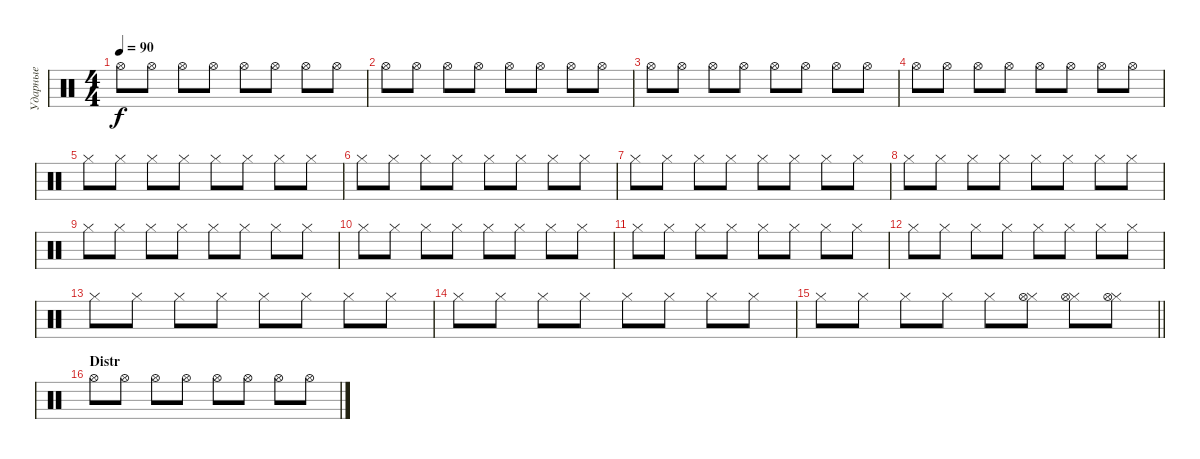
\track ("Ударные" "Ударные") {instrument percussion}
\staff {score}
\articulation defaults
\ts (4 4)
\tempo 90
\clef neutral
\ks c "Hi-Hat (open)".8{dy f} "Hi-Hat (open)".8 "Hi-Hat (open)".8 "Hi-Hat (open)".8 "Hi-Hat (open)".8 "Hi-Hat (open)".8 "Hi-Hat (open)".8 "Hi-Hat (open)".8
|
"Hi-Hat (open)".8 "Hi-Hat (open)".8 "Hi-Hat (open)".8 "Hi-Hat (open)".8 "Hi-Hat (open)".8 "Hi-Hat (open)".8 "Hi-Hat (open)".8 "Hi-Hat (open)".8 |
"Hi-Hat (open)".8 "Hi-Hat (open)".8 "Hi-Hat (open)".8 "Hi-Hat (open)".8 "Hi-Hat (open)".8 "Hi-Hat (open)".8 "Hi-Hat (open)".8 "Hi-Hat (open)".8 |
"Hi-Hat (open)".8 "Hi-Hat (open)".8 "Hi-Hat (open)".8 "Hi-Hat (open)".8 "Hi-Hat (open)".8 "Hi-Hat (open)".8 "Hi-Hat (open)".8 "Hi-Hat (open)".8 |
"Hi-Hat (closed)".8 "Hi-Hat (closed)".8 "Hi-Hat (closed)".8 "Hi-Hat (closed)".8 "Hi-Hat (closed)".8 "Hi-Hat (closed)".8 "Hi-Hat (closed)".8 "Hi-Hat (closed)".8 |
"Hi-Hat (closed)".8 "Hi-Hat (closed)".8 "Hi-Hat (closed)".8 "Hi-Hat (closed)".8 "Hi-Hat (closed)".8 "Hi-Hat (closed)".8 "Hi-Hat (closed)".8 "Hi-Hat (closed)".8 |
"Hi-Hat (closed)".8 "Hi-Hat (closed)".8 "Hi-Hat (closed)".8 "Hi-Hat (closed)".8 "Hi-Hat (closed)".8 "Hi-Hat (closed)".8 "Hi-Hat (closed)".8 "Hi-Hat (closed)".8 |
"Hi-Hat (closed)".8 "Hi-Hat (closed)".8 "Hi-Hat (closed)".8 "Hi-Hat (closed)".8 "Hi-Hat (closed)".8 "Hi-Hat (closed)".8 "Hi-Hat (closed)".8 "Hi-Hat (closed)".8 |
"Hi-Hat (closed)".8 "Hi-Hat (closed)".8 "Hi-Hat (closed)".8 "Hi-Hat (closed)".8 "Hi-Hat (closed)".8 "Hi-Hat (closed)".8 "Hi-Hat (closed)".8 "Hi-Hat (closed)".8 |
"Hi-Hat (closed)".8 "Hi-Hat (closed)".8 "Hi-Hat (closed)".8 "Hi-Hat (closed)".8 "Hi-Hat (closed)".8 "Hi-Hat (closed)".8 "Hi-Hat (closed)".8 "Hi-Hat (closed)".8 |
"Hi-Hat (closed)".8 "Hi-Hat (closed)".8 "Hi-Hat (closed)".8 "Hi-Hat (closed)".8 "Hi-Hat (closed)".8 "Hi-Hat (closed)".8 "Hi-Hat (closed)".8 "Hi-Hat (closed)".8 |
"Hi-Hat (closed)".8 "Hi-Hat (closed)".8 "Hi-Hat (closed)".8 "Hi-Hat (closed)".8 "Hi-Hat (closed)".8 "Hi-Hat (closed)".8 "Hi-Hat (closed)".8 "Hi-Hat (closed)".8 |
"Hi-Hat (closed)".8 "Hi-Hat (closed)".8 "Hi-Hat (closed)".8 "Hi-Hat (closed)".8 "Hi-Hat (closed)".8 "Hi-Hat (closed)".8 "Hi-Hat (closed)".8 "Hi-Hat (closed)".8 |
"Hi-Hat (closed)".8 "Hi-Hat (closed)".8 "Hi-Hat (closed)".8 "Hi-Hat (closed)".8 "Hi-Hat (closed)".8 "Hi-Hat (closed)".8 "Hi-Hat (closed)".8 "Hi-Hat (closed)".8 |
\barLineRight lightlight "Hi-Hat (closed)".8 "Hi-Hat (closed)".8 "Hi-Hat (closed)".8 "Hi-Hat (closed)".8 "Hi-Hat (closed)".8
("Hi-Hat (closed)" "Hi-Hat (open)").8 ("Hi-Hat (closed)" "Hi-Hat (open)").8 ("Hi-Hat (closed)" "Hi-Hat (open)").8 |
\section ("" "Distr")
"Hi-Hat (open)".8 "Hi-Hat (open)".8 "Hi-Hat (open)".8 "Hi-Hat (open)".8 "Hi-Hat (open)".8 "Hi-Hat (open)".8 "Hi-Hat (open)".8 "Hi-Hat (open)".8
